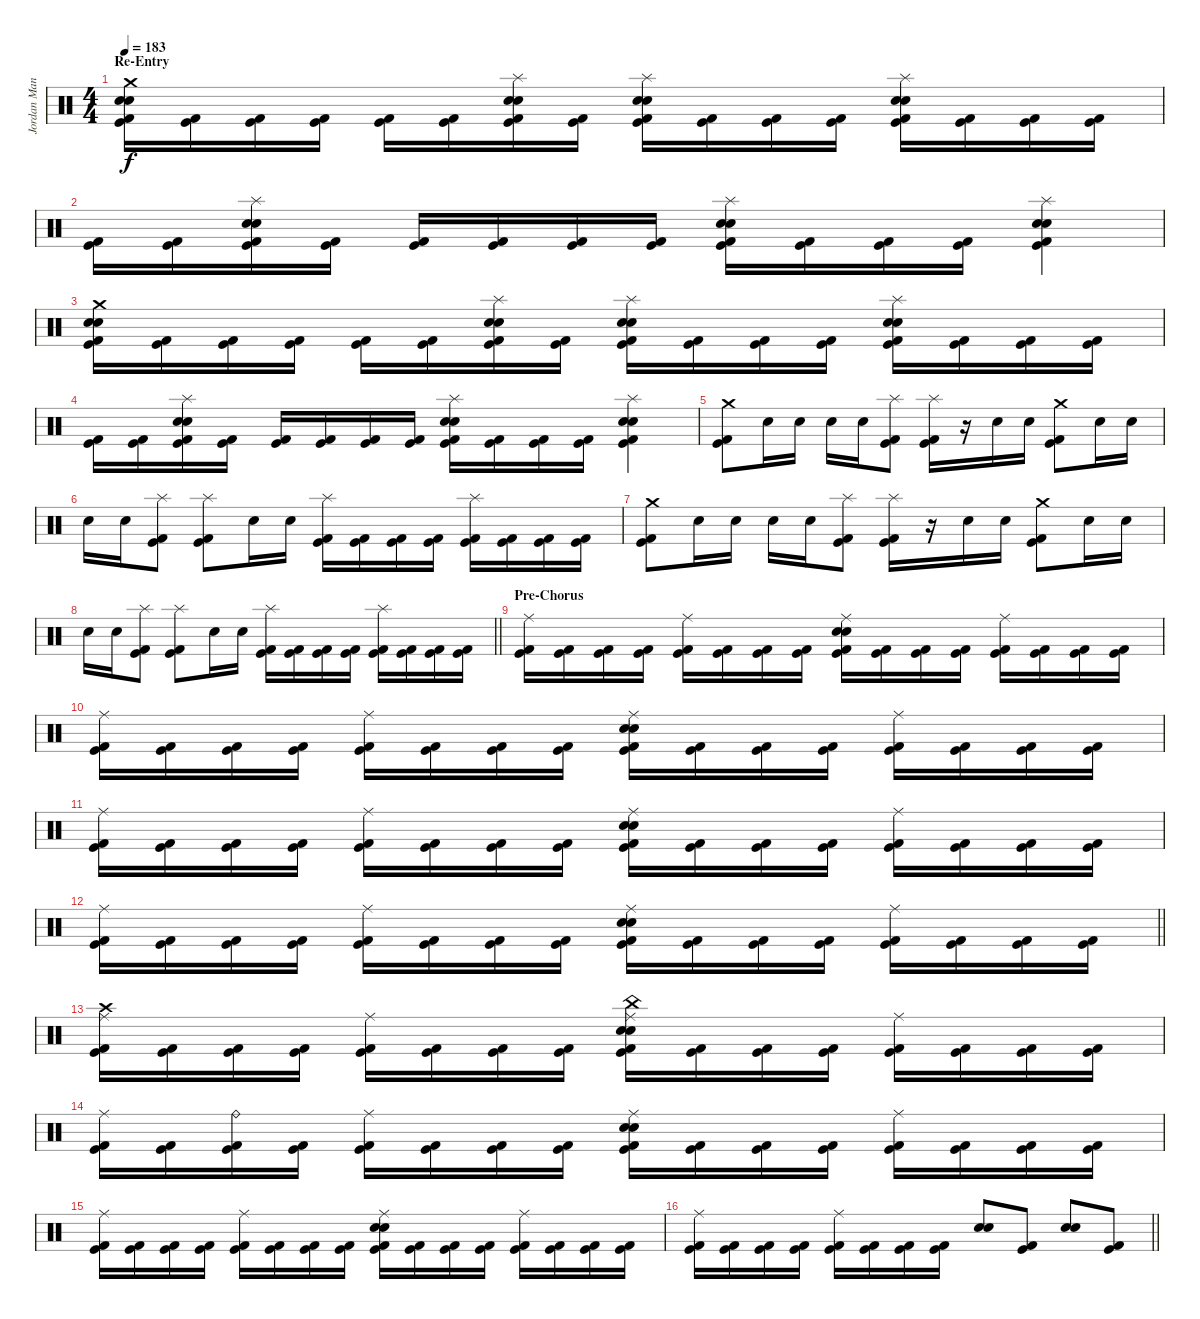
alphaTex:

\track ("Jordan Mancino" "Jordan Man") {instrument percussion}
\staff {score}
\articulation defaults
\ts (4 4)
\section ("" "Re-Entry")
\tempo 183
\clef neutral
\ks c
("Crash medium (hit)" "Electric Snare (hit)" "Snare (hit) 2" "Kick (hit)" "Kick (hit) 2").16{dy f} ("Kick (hit)" "Kick (hit) 2").16 ("Kick (hit)" "Kick (hit) 2").16 ("Kick (hit)" "Kick (hit) 2").16 ("Kick (hit)" "Kick (hit) 2").16 ("Kick (hit)" "Kick (hit) 2").16 ("Splash (hit)" "Electric Snare (hit)" "Snare (hit) 2" "Kick (hit)" "Kick (hit) 2").16 ("Kick (hit)" "Kick (hit) 2").16 ("Splash (hit)" "Electric Snare (hit)" "Snare (hit) 2" "Kick (hit)" "Kick (hit) 2").16 ("Kick (hit)" "Kick (hit) 2").16 ("Kick (hit)" "Kick (hit) 2").16 ("Kick (hit)" "Kick (hit) 2").16 ("Splash (hit)" "Electric Snare (hit)" "Snare (hit) 2" "Kick (hit)" "Kick (hit) 2").16 ("Kick (hit)" "Kick (hit) 2").16 ("Kick (hit)" "Kick (hit) 2").16 ("Kick (hit)" "Kick (hit) 2").16 |
("Kick (hit)" "Kick (hit) 2").16 ("Kick (hit)" "Kick (hit) 2").16 ("Splash (hit)" "Electric Snare (hit)" "Snare (hit) 2" "Kick (hit)" "Kick (hit) 2").16 ("Kick (hit)" "Kick (hit) 2").16 ("Kick (hit)" "Kick (hit) 2").16 ("Kick (hit)" "Kick (hit) 2").16 ("Kick (hit)" "Kick (hit) 2").16 ("Kick (hit)" "Kick (hit) 2").16 ("Splash (hit)" "Electric Snare (hit)" "Snare (hit) 2" "Kick (hit)" "Kick (hit) 2").16 ("Kick (hit)" "Kick (hit) 2").16 ("Kick (hit)" "Kick (hit) 2").16 ("Kick (hit)" "Kick (hit) 2").16 ("Splash (hit)" "Electric Snare (hit)" "Snare (hit) 2" "Kick (hit)" "Kick (hit) 2").4 |
("Crash medium (hit)" "Electric Snare (hit)" "Snare (hit) 2" "Kick (hit)" "Kick (hit) 2").16 ("Kick (hit)" "Kick (hit) 2").16 ("Kick (hit)" "Kick (hit) 2").16 ("Kick (hit)" "Kick (hit) 2").16 ("Kick (hit)" "Kick (hit) 2").16 ("Kick (hit)" "Kick (hit) 2").16 ("Splash (hit)" "Electric Snare (hit)" "Snare (hit) 2" "Kick (hit)" "Kick (hit) 2").16 ("Kick (hit)" "Kick (hit) 2").16 ("Splash (hit)" "Electric Snare (hit)" "Snare (hit) 2" "Kick (hit)" "Kick (hit) 2").16 ("Kick (hit)" "Kick (hit) 2").16 ("Kick (hit)" "Kick (hit) 2").16 ("Kick (hit)" "Kick (hit) 2").16 ("Splash (hit)" "Electric Snare (hit)" "Snare (hit) 2" "Kick (hit)" "Kick (hit) 2").16 ("Kick (hit)" "Kick (hit) 2").16 ("Kick (hit)" "Kick (hit) 2").16 ("Kick (hit)" "Kick (hit) 2").16 |
("Kick (hit)" "Kick (hit) 2").16 ("Kick (hit)" "Kick (hit) 2").16 ("Splash (hit)" "Electric Snare (hit)" "Snare (hit) 2" "Kick (hit)" "Kick (hit) 2").16 ("Kick (hit)" "Kick (hit) 2").16 ("Kick (hit)" "Kick (hit) 2").16 ("Kick (hit)" "Kick (hit) 2").16 ("Kick (hit)" "Kick (hit) 2").16 ("Kick (hit)" "Kick (hit) 2").16 ("Splash (hit)" "Electric Snare (hit)" "Snare (hit) 2" "Kick (hit)" "Kick (hit) 2").16 ("Kick (hit)" "Kick (hit) 2").16 ("Kick (hit)" "Kick (hit) 2").16 ("Kick (hit)" "Kick (hit) 2").16 ("Splash (hit)" "Electric Snare (hit)" "Snare (hit) 2" "Kick (hit)" "Kick (hit) 2").4 |
("Crash medium (hit)" "Kick (hit)" "Kick (hit) 2").8 "Snare (hit) 2".16 "Snare (hit) 2".16 "Snare (hit) 2".16 "Snare (hit) 2".16 ("Splash (hit)" "Kick (hit)" "Kick (hit) 2").8 ("Splash (hit)" "Kick (hit)" "Kick (hit) 2").16 r.16 "Snare (hit) 2".16 "Snare (hit) 2".16 ("Crash medium (hit)" "Kick (hit)" "Kick (hit) 2").8 "Snare (hit) 2".16 "Snare (hit) 2".16 |
"Snare (hit) 2".16 "Snare (hit) 2".16 ("Splash (hit)" "Kick (hit)" "Kick (hit) 2").8 ("Splash (hit)" "Kick (hit)" "Kick (hit) 2").8 "Snare (hit) 2".16 "Snare (hit) 2".16 ("Splash (hit)" "Kick (hit)" "Kick (hit) 2").16 ("Kick (hit)" "Kick (hit) 2").16 ("Kick (hit)" "Kick (hit) 2").16 ("Kick (hit)" "Kick (hit) 2").16 ("Splash (hit)" "Kick (hit)" "Kick (hit) 2").16 ("Kick (hit)" "Kick (hit) 2").16 ("Kick (hit)" "Kick (hit) 2").16 ("Kick (hit)" "Kick (hit) 2").16 |
("Crash medium (hit)" "Kick (hit)" "Kick (hit) 2").8 "Snare (hit) 2".16 "Snare (hit) 2".16 "Snare (hit) 2".16 "Snare (hit) 2".16 ("Splash (hit)" "Kick (hit)" "Kick (hit) 2").8 ("Splash (hit)" "Kick (hit)" "Kick (hit) 2").16 r.16 "Snare (hit) 2".16 "Snare (hit) 2".16 ("Crash medium (hit)" "Kick (hit)" "Kick (hit) 2").8 "Snare (hit) 2".16 "Snare (hit) 2".16 |
\barLineRight lightlight "Snare (hit) 2".16 "Snare (hit) 2".16
("Splash (hit)" "Kick (hit)" "Kick (hit) 2").8 ("Splash (hit)" "Kick (hit)" "Kick (hit) 2").8 "Snare (hit) 2".16 "Snare (hit) 2".16 ("Splash (hit)" "Kick (hit)" "Kick (hit) 2").16 ("Kick (hit)" "Kick (hit) 2").16 ("Kick (hit)" "Kick (hit) 2").16 ("Kick (hit)" "Kick (hit) 2").16 ("Splash (hit)" "Kick (hit)" "Kick (hit) 2").16 ("Kick (hit)" "Kick (hit) 2").16 ("Kick (hit)" "Kick (hit) 2").16 ("Kick (hit)" "Kick (hit) 2").16 |
\section ("" "Pre-Chorus")
("Ride (middle)" "Kick (hit)" "Kick (hit) 2").16 ("Kick (hit)" "Kick (hit) 2").16 ("Kick (hit)" "Kick (hit) 2").16 ("Kick (hit)" "Kick (hit) 2").16 ("Ride (middle)" "Kick (hit)" "Kick (hit) 2").16 ("Kick (hit)" "Kick (hit) 2").16 ("Kick (hit)" "Kick (hit) 2").16 ("Kick (hit)" "Kick (hit) 2").16 ("Ride (middle)" "Electric Snare (hit)" "Snare (hit) 2" "Kick (hit)" "Kick (hit) 2").16 ("Kick (hit)" "Kick (hit) 2").16 ("Kick (hit)" "Kick (hit) 2").16 ("Kick (hit)" "Kick (hit) 2").16 ("Ride (middle)" "Kick (hit)" "Kick (hit) 2").16 ("Kick (hit)" "Kick (hit) 2").16 ("Kick (hit)" "Kick (hit) 2").16 ("Kick (hit)" "Kick (hit) 2").16 |
("Ride (middle)" "Kick (hit)" "Kick (hit) 2").16 ("Kick (hit)" "Kick (hit) 2").16 ("Kick (hit)" "Kick (hit) 2").16 ("Kick (hit)" "Kick (hit) 2").16 ("Ride (middle)" "Kick (hit)" "Kick (hit) 2").16 ("Kick (hit)" "Kick (hit) 2").16 ("Kick (hit)" "Kick (hit) 2").16 ("Kick (hit)" "Kick (hit) 2").16 ("Ride (middle)" "Electric Snare (hit)" "Snare (hit) 2" "Kick (hit)" "Kick (hit) 2").16 ("Kick (hit)" "Kick (hit) 2").16 ("Kick (hit)" "Kick (hit) 2").16 ("Kick (hit)" "Kick (hit) 2").16 ("Ride (middle)" "Kick (hit)" "Kick (hit) 2").16 ("Kick (hit)" "Kick (hit) 2").16 ("Kick (hit)" "Kick (hit) 2").16 ("Kick (hit)" "Kick (hit) 2").16 |
("Ride (middle)" "Kick (hit)" "Kick (hit) 2").16 ("Kick (hit)" "Kick (hit) 2").16 ("Kick (hit)" "Kick (hit) 2").16 ("Kick (hit)" "Kick (hit) 2").16 ("Ride (middle)" "Kick (hit)" "Kick (hit) 2").16 ("Kick (hit)" "Kick (hit) 2").16 ("Kick (hit)" "Kick (hit) 2").16 ("Kick (hit)" "Kick (hit) 2").16 ("Ride (middle)" "Electric Snare (hit)" "Snare (hit) 2" "Kick (hit)" "Kick (hit) 2").16 ("Kick (hit)" "Kick (hit) 2").16 ("Kick (hit)" "Kick (hit) 2").16 ("Kick (hit)" "Kick (hit) 2").16 ("Ride (middle)" "Kick (hit)" "Kick (hit) 2").16 ("Kick (hit)" "Kick (hit) 2").16 ("Kick (hit)" "Kick (hit) 2").16 ("Kick (hit)" "Kick (hit) 2").16 |
\barLineRight lightlight
("Ride (middle)" "Kick (hit)" "Kick (hit) 2").16 ("Kick (hit)" "Kick (hit) 2").16 ("Kick (hit)" "Kick (hit) 2").16 ("Kick (hit)" "Kick (hit) 2").16 ("Ride (middle)" "Kick (hit)" "Kick (hit) 2").16 ("Kick (hit)" "Kick (hit) 2").16 ("Kick (hit)" "Kick (hit) 2").16 ("Kick (hit)" "Kick (hit) 2").16 ("Ride (middle)" "Electric Snare (hit)" "Snare (hit) 2" "Kick (hit)" "Kick (hit) 2").16 ("Kick (hit)" "Kick (hit) 2").16 ("Kick (hit)" "Kick (hit) 2").16 ("Kick (hit)" "Kick (hit) 2").16 ("Ride (middle)" "Kick (hit)" "Kick (hit) 2").16 ("Kick (hit)" "Kick (hit) 2").16 ("Kick (hit)" "Kick (hit) 2").16 ("Kick (hit)" "Kick (hit) 2").16 |
("Ride (middle)" "Crash high (hit)" "Kick (hit)" "Kick (hit) 2").16 ("Kick (hit)" "Kick (hit) 2").16 ("Kick (hit)" "Kick (hit) 2").16 ("Kick (hit)" "Kick (hit) 2").16 ("Ride (middle)" "Kick (hit)" "Kick (hit) 2").16 ("Kick (hit)" "Kick (hit) 2").16 ("Kick (hit)" "Kick (hit) 2").16 ("Kick (hit)" "Kick (hit) 2").16 ("Ride (middle)" "China (hit)" "Electric Snare (hit)" "Snare (hit) 2" "Kick (hit)" "Kick (hit) 2").16 ("Kick (hit)" "Kick (hit) 2").16 ("Kick (hit)" "Kick (hit) 2").16 ("Kick (hit)" "Kick (hit) 2").16 ("Ride (middle)" "Kick (hit)" "Kick (hit) 2").16 ("Kick (hit)" "Kick (hit) 2").16 ("Kick (hit)" "Kick (hit) 2").16 ("Kick (hit)" "Kick (hit) 2").16 |
("Ride (middle)" "Kick (hit)" "Kick (hit) 2").16 ("Kick (hit)" "Kick (hit) 2").16 ("Ride (bell)" "Kick (hit)" "Kick (hit) 2").16 ("Kick (hit)" "Kick (hit) 2").16 ("Ride (middle)" "Kick (hit)" "Kick (hit) 2").16 ("Kick (hit)" "Kick (hit) 2").16 ("Kick (hit)" "Kick (hit) 2").16 ("Kick (hit)" "Kick (hit) 2").16 ("Ride (middle)" "Electric Snare (hit)" "Snare (hit) 2" "Kick (hit)" "Kick (hit) 2").16 ("Kick (hit)" "Kick (hit) 2").16 ("Kick (hit)" "Kick (hit) 2").16 ("Kick (hit)" "Kick (hit) 2").16 ("Ride (middle)" "Kick (hit)" "Kick (hit) 2").16 ("Kick (hit)" "Kick (hit) 2").16 ("Kick (hit)" "Kick (hit) 2").16 ("Kick (hit)" "Kick (hit) 2").16 |
("Ride (middle)" "Kick (hit)" "Kick (hit) 2").16 ("Kick (hit)" "Kick (hit) 2").16 ("Kick (hit)" "Kick (hit) 2").16 ("Kick (hit)" "Kick (hit) 2").16 ("Ride (middle)" "Kick (hit)" "Kick (hit) 2").16 ("Kick (hit)" "Kick (hit) 2").16 ("Kick (hit)" "Kick (hit) 2").16 ("Kick (hit)" "Kick (hit) 2").16 ("Ride (middle)" "Electric Snare (hit)" "Snare (hit) 2" "Kick (hit)" "Kick (hit) 2").16 ("Kick (hit)" "Kick (hit) 2").16 ("Kick (hit)" "Kick (hit) 2").16 ("Kick (hit)" "Kick (hit) 2").16 ("Ride (middle)" "Kick (hit)" "Kick (hit) 2").16 ("Kick (hit)" "Kick (hit) 2").16 ("Kick (hit)" "Kick (hit) 2").16 ("Kick (hit)" "Kick (hit) 2").16 |
\barLineRight lightlight
("Ride (middle)" "Kick (hit)" "Kick (hit) 2").16 ("Kick (hit)" "Kick (hit) 2").16 ("Kick (hit)" "Kick (hit) 2").16 ("Kick (hit)" "Kick (hit) 2").16 ("Ride (middle)" "Kick (hit)" "Kick (hit) 2").16 ("Kick (hit)" "Kick (hit) 2").16 ("Kick (hit)" "Kick (hit) 2").16 ("Kick (hit)" "Kick (hit) 2").16 ("Electric Snare (hit)" "Snare (hit) 2").8 ("Kick (hit)" "Kick (hit) 2").8 ("Electric Snare (hit)" "Snare (hit) 2").8 ("Kick (hit)" "Kick (hit) 2").8
